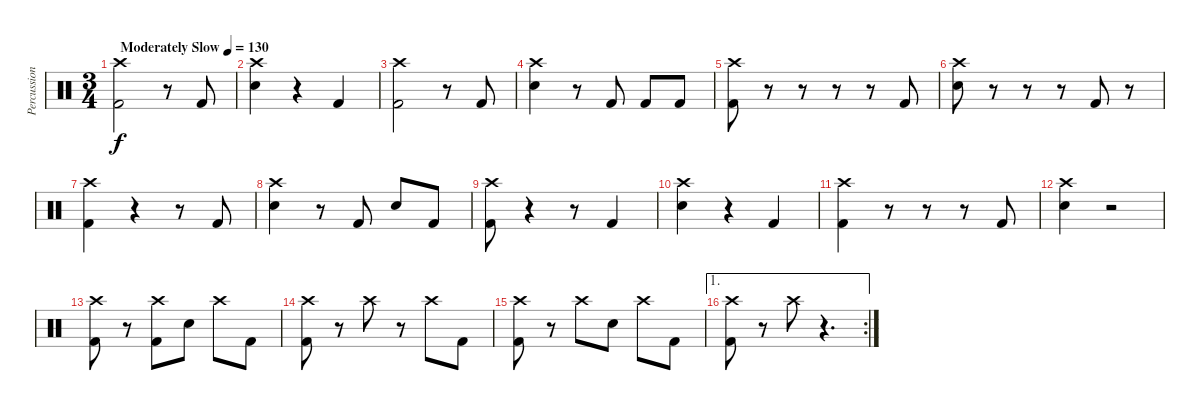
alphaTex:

\track ("Percussion" "Percussion") {instrument percussion}
\staff {score}
\articulation defaults
\ts (3 4)
\tempo (130 "Moderately Slow")
\clef neutral
\ks c
("Crash high (hit)" "Kick (hit) 2").2{dy f} r.8 "Kick (hit) 2".8 |
("Electric Snare (hit)" "Crash high (hit)").4 r.4 "Kick (hit) 2".4 |
("Crash high (hit)" "Kick (hit) 2").2 r.8 "Kick (hit) 2".8 |
("Electric Snare (hit)" "Crash high (hit)").4 r.8 "Kick (hit) 2".8 "Kick (hit) 2".8 "Kick (hit) 2".8 |
("Crash high (hit)" "Kick (hit) 2").8 r.8 r.8 r.8 r.8 "Kick (hit) 2".8 |
("Electric Snare (hit)" "Crash high (hit)").8 r.8 r.8 r.8 "Kick (hit) 2".8 r.8 |
("Crash high (hit)" "Kick (hit) 2").4 r.4 r.8 "Kick (hit) 2".8 |
("Electric Snare (hit)" "Crash high (hit)").4 r.8 "Kick (hit) 2".8 "Electric Snare (hit)".8 "Kick (hit) 2".8 |
("Crash high (hit)" "Kick (hit) 2").8 r.4 r.8 "Kick (hit) 2".4 |
("Electric Snare (hit)" "Crash high (hit)").4 r.4 "Kick (hit) 2".4 |
("Crash high (hit)" "Kick (hit) 2").4 r.8 r.8 r.8 "Kick (hit) 2".8 |
("Electric Snare (hit)" "Crash high (hit)").4 r.2 |
("Crash high (hit)" "Kick (hit) 2").8 r.8 ("Crash high (hit)" "Kick (hit) 2").8 "Electric Snare (hit)".8 "Crash high (hit)".8 "Kick (hit) 2".8 |
("Crash high (hit)" "Kick (hit) 2").8 r.8 "Crash high (hit)".8 r.8 "Crash high (hit)".8 "Kick (hit) 2".8 |
("Crash high (hit)" "Kick (hit) 2").8 r.8 "Crash high (hit)".8 "Electric Snare (hit)".8 "Crash high (hit)".8 "Kick (hit) 2".8 |
\ae 1
\rc 2
("Crash high (hit)" "Kick (hit) 2").8 r.8 "Crash high (hit)".8 r.4{d}
